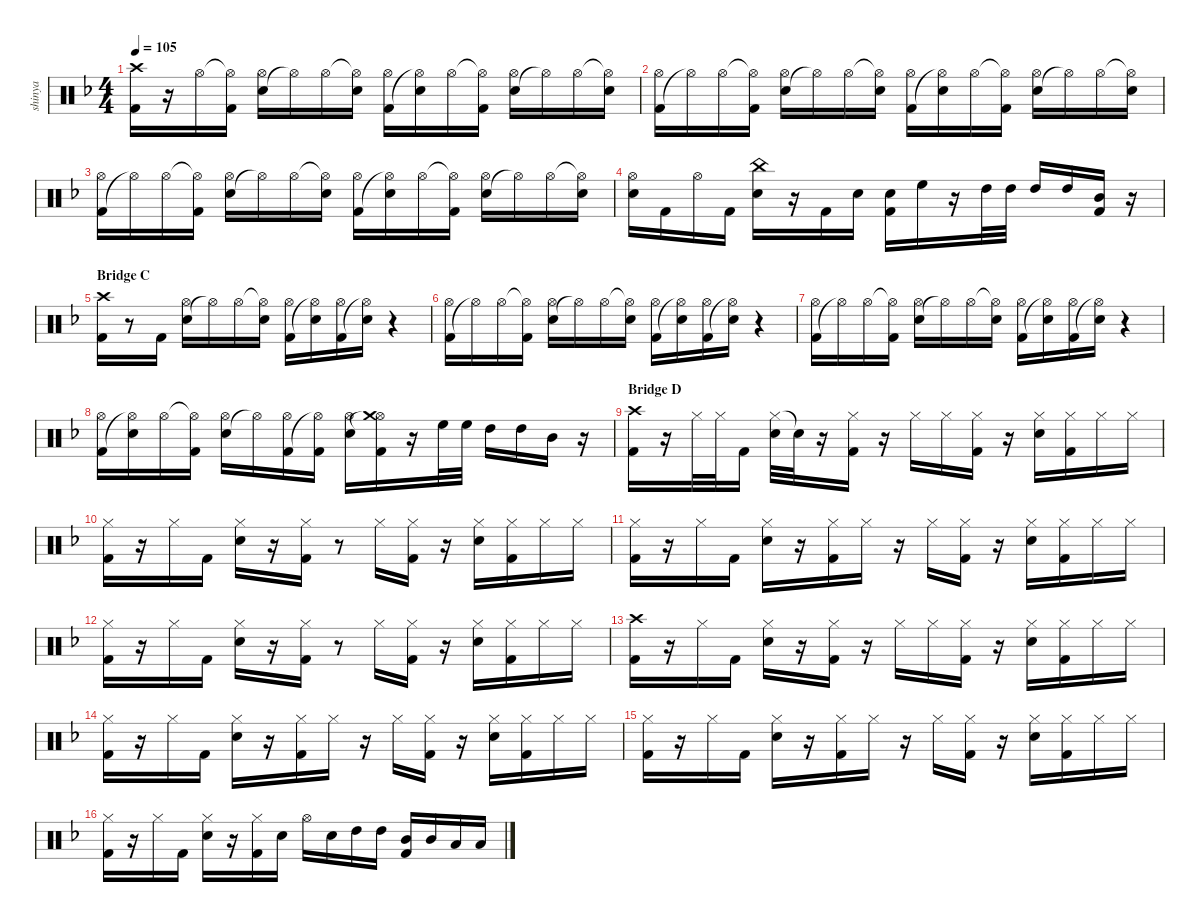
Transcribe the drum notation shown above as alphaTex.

\defaultSystemsLayout 4
\hideDynamics
\bracketExtendMode nobrackets
\otherSystemsTrackNameOrientation horizontal
\track ("Shinya" "shinya") {defaultSystemsLayout 4 instrument percussion}
\staff {score}
\articulation defaults
\ts (4 4)
\tempo 105
\clef neutral
\scale
1.05921
\ks dminor
("Kick (hit) 2"{acc forcenatural} "Crash high (hit)"{acc #}).16{dy fff} r.16 "Hi-Hat (open)"{acc #}.16 ("Hi-Hat (open)"{t acc #} "Kick (hit) 2"{acc forcenatural}).16 ("Snare (hit) 2"{acc forcenatural} "Hi-Hat (open)"{acc #}).16 "Hi-Hat (open)"{t acc #}.16 "Hi-Hat (open)"{acc #}.16 ("Hi-Hat (open)"{t acc #} "Snare (hit) 2"{acc forcenatural}).16 ("Kick (hit) 2"{acc forcenatural} "Hi-Hat (open)"{acc #}).16 ("Hi-Hat (open)"{t acc #} "Snare (hit) 2"{acc forcenatural}).16 "Hi-Hat (open)"{acc #}.16 ("Hi-Hat (open)"{t acc #} "Kick (hit) 2"{acc forcenatural}).16 ("Snare (hit) 2"{acc forcenatural} "Hi-Hat (open)"{acc #}).16 "Hi-Hat (open)"{t acc #}.16 "Hi-Hat (open)"{acc #}.16 ("Hi-Hat (open)"{t acc #} "Snare (hit) 2"{acc forcenatural}).16 |
\scale
0.974368 ("Kick (hit) 2"{acc forcenatural} "Hi-Hat (open)"{acc #}).16 "Hi-Hat (open)"{t acc #}.16 "Hi-Hat (open)"{acc #}.16 ("Hi-Hat (open)"{t acc #} "Kick (hit) 2"{acc forcenatural}).16 ("Snare (hit) 2"{acc forcenatural} "Hi-Hat (open)"{acc #}).16 "Hi-Hat (open)"{t acc #}.16 "Hi-Hat (open)"{acc #}.16 ("Hi-Hat (open)"{t acc #} "Snare (hit) 2"{acc forcenatural}).16 ("Kick (hit) 2"{acc forcenatural} "Hi-Hat (open)"{acc #}).16 ("Hi-Hat (open)"{t acc #} "Snare (hit) 2"{acc forcenatural}).16 "Hi-Hat (open)"{acc #}.16 ("Hi-Hat (open)"{t acc #} "Kick (hit) 2"{acc forcenatural}).16 ("Snare (hit) 2"{acc forcenatural} "Hi-Hat (open)"{acc #}).16 "Hi-Hat (open)"{t acc #}.16 "Hi-Hat (open)"{acc #}.16 ("Hi-Hat (open)"{t acc #} "Snare (hit) 2"{acc forcenatural}).16 |
\scale
0.974368 ("Kick (hit) 2"{acc forcenatural} "Hi-Hat (open)"{acc #}).16 "Hi-Hat (open)"{t acc #}.16 "Hi-Hat (open)"{acc #}.16 ("Hi-Hat (open)"{t acc #} "Kick (hit) 2"{acc forcenatural}).16 ("Snare (hit) 2"{acc forcenatural} "Hi-Hat (open)"{acc #}).16 "Hi-Hat (open)"{t acc #}.16 "Hi-Hat (open)"{acc #}.16 ("Hi-Hat (open)"{t acc #} "Snare (hit) 2"{acc forcenatural}).16 ("Kick (hit) 2"{acc forcenatural} "Hi-Hat (open)"{acc #}).16 ("Hi-Hat (open)"{t acc #} "Snare (hit) 2"{acc forcenatural}).16 "Hi-Hat (open)"{acc #}.16 ("Hi-Hat (open)"{t acc #} "Kick (hit) 2"{acc forcenatural}).16 ("Snare (hit) 2"{acc forcenatural} "Hi-Hat (open)"{acc #}).16 "Hi-Hat (open)"{t acc #}.16 "Hi-Hat (open)"{acc #}.16 ("Hi-Hat (open)"{t acc #} "Snare (hit) 2"{acc forcenatural}).16 |
\scale
0.992053 ("Snare (hit) 2"{acc forcenatural} "Hi-Hat (open)"{acc #}).16 "Kick (hit) 2"{acc forcenatural}.16 "Hi-Hat (open)"{acc #}.16 "Kick (hit) 2"{acc forcenatural}.16 ("Snare (hit) 2"{acc forcenatural} "China (hit)"{acc forcenatural}).16 r.16 "Kick (hit) 2"{acc forcenatural}.16 "Snare (hit) 2"{acc forcenatural}.16 ("Kick (hit) 2"{acc forcenatural} "Snare (hit) 2"{acc forcenatural}).16 "High Floor Tom (hit)"{acc forcenatural}.16 r.16 "High Tom (hit)"{acc forcenatural}.32{dy ff} "High Tom (hit)"{acc forcenatural}.32 "High Tom (hit)"{acc forcenatural}.16{dy fff} "High Tom (hit)"{acc forcenatural}.16 ("Kick (hit) 2"{acc forcenatural} "Mid Tom (hit)"{acc forcenatural}).16 r.16 |
\section ("" "Bridge C")
\scale
1.05921 ("Kick (hit) 2"{acc forcenatural} "Crash high (hit)"{acc #}).16 r.8 "Kick (hit) 2"{acc forcenatural}.16 ("Snare (hit) 2"{acc forcenatural} "Hi-Hat (open)"{acc #}).16 "Hi-Hat (open)"{t acc #}.16 "Hi-Hat (open)"{acc #}.16{dy f} ("Hi-Hat (open)"{t acc #} "Snare (hit) 2"{acc forcenatural}).16 ("Kick (hit) 2"{acc forcenatural} "Hi-Hat (open)"{acc #}).16{dy fff} ("Hi-Hat (open)"{t acc #} "Snare (hit) 2"{acc forcenatural}).16 ("Kick (hit) 2"{acc forcenatural} "Hi-Hat (open)"{acc #}).16 ("Hi-Hat (open)"{t acc #} "Snare (hit) 2"{acc forcenatural}).16 r.4 |
\scale
0.974368 ("Kick (hit) 2"{acc forcenatural} "Hi-Hat (open)"{acc #}).16 "Hi-Hat (open)"{t acc #}.16 "Hi-Hat (open)"{acc #}.16{dy f} ("Hi-Hat (open)"{t acc #} "Kick (hit) 2"{acc forcenatural}).16 ("Snare (hit) 2"{acc forcenatural} "Hi-Hat (open)"{acc #}).16{dy fff} "Hi-Hat (open)"{t acc #}.16 "Hi-Hat (open)"{acc #}.16{dy f} ("Hi-Hat (open)"{t acc #} "Snare (hit) 2"{acc forcenatural}).16 ("Kick (hit) 2"{acc forcenatural} "Hi-Hat (open)"{acc #}).16{dy fff} ("Hi-Hat (open)"{t acc #} "Snare (hit) 2"{acc forcenatural}).16 ("Kick (hit) 2"{acc forcenatural} "Hi-Hat (open)"{acc #}).16 ("Hi-Hat (open)"{t acc #} "Snare (hit) 2"{acc forcenatural}).16 r.4 |
\scale
0.974368 ("Kick (hit) 2"{acc forcenatural} "Hi-Hat (open)"{acc #}).16 "Hi-Hat (open)"{t acc #}.16 "Hi-Hat (open)"{acc #}.16{dy f} ("Hi-Hat (open)"{t acc #} "Kick (hit) 2"{acc forcenatural}).16 ("Snare (hit) 2"{acc forcenatural} "Hi-Hat (open)"{acc #}).16{dy fff} "Hi-Hat (open)"{t acc #}.16 "Hi-Hat (open)"{acc #}.16{dy f} ("Hi-Hat (open)"{t acc #} "Snare (hit) 2"{acc forcenatural}).16 ("Kick (hit) 2"{acc forcenatural} "Hi-Hat (open)"{acc #}).16{dy fff} ("Hi-Hat (open)"{t acc #} "Snare (hit) 2"{acc forcenatural}).16 ("Kick (hit) 2"{acc forcenatural} "Hi-Hat (open)"{acc #}).16 ("Hi-Hat (open)"{t acc #} "Snare (hit) 2"{acc forcenatural}).16 r.4 |
\scale
0.992053 ("Kick (hit) 2"{acc forcenatural} "Hi-Hat (open)"{acc #}).16 ("Hi-Hat (open)"{t acc #} "Snare (hit) 2"{acc forcenatural}).16 "Hi-Hat (open)"{acc #}.16{dy f} ("Hi-Hat (open)"{t acc #} "Kick (hit) 2"{acc forcenatural}).16 ("Snare (hit) 2"{acc forcenatural} "Hi-Hat (open)"{acc #}).16{dy fff} "Hi-Hat (open)"{t acc #}.16 ("Kick (hit) 2"{acc forcenatural} "Hi-Hat (open)"{acc #}).16 ("Hi-Hat (open)"{t acc #} "Kick (hit) 2"{acc forcenatural}).16{dy f} ("Snare (hit) 2"{acc forcenatural} "Hi-Hat (open)"{acc #}).16{dy fff} ("Hi-Hat (open)"{t acc #} "Kick (hit) 2"{acc forcenatural} "Crash medium (hit)"{acc forcenatural}).16 r.16 "High Floor Tom (hit)"{acc forcenatural}.32 "High Floor Tom (hit)"{acc forcenatural}.32 "High Tom (hit)"{acc forcenatural}.16 "High Tom (hit)"{acc forcenatural}.16 "Mid Tom (hit)"{acc forcenatural}.16 r.16 |
\section ("" "Bridge D")
\scale
1.06363 ("Kick (hit) 2"{acc forcenatural} "Crash high (hit)"{acc #}).16 r.16 "Hi-Hat (closed)"{acc #}.32{dy f} "Hi-Hat (closed)"{acc #}.32 "Kick (hit) 2"{acc forcenatural}.16{dy fff} ("Hi-Hat (closed)"{acc #} "Snare (hit) 2"{acc forcenatural}).32{dy f} "Snare (hit) 2"{t acc forcenatural}.32{dy fff} r.16 ("Kick (hit) 2"{acc forcenatural} "Hi-Hat (closed)"{acc #}).16 r.16 "Hi-Hat (closed)"{acc #}.16 "Hi-Hat (closed)"{acc #}.16 ("Kick (hit) 2"{acc forcenatural} "Hi-Hat (closed)"{acc #}).16 r.16 ("Snare (hit) 2"{acc forcenatural} "Hi-Hat (closed)"{acc #}).16 ("Kick (hit) 2"{acc forcenatural} "Hi-Hat (closed)"{acc #}).16 "Hi-Hat (closed)"{acc #}.16 "Hi-Hat (closed)"{acc #}.16 |
\scale
0.97879 ("Kick (hit) 2"{acc forcenatural} "Hi-Hat (closed)"{acc #}).16 r.16 "Hi-Hat (closed)"{acc #}.16 "Kick (hit) 2"{acc forcenatural}.16 ("Snare (hit) 2"{acc forcenatural} "Hi-Hat (closed)"{acc #}).16 r.16 ("Kick (hit) 2"{acc forcenatural} "Hi-Hat (closed)"{acc #}).16 r.8 "Hi-Hat (closed)"{acc #}.16 ("Kick (hit) 2"{acc forcenatural} "Hi-Hat (closed)"{acc #}).16 r.16 ("Snare (hit) 2"{acc forcenatural} "Hi-Hat (closed)"{acc #}).16 ("Kick (hit) 2"{acc forcenatural} "Hi-Hat (closed)"{acc #}).16 "Hi-Hat (closed)"{acc #}.16 "Hi-Hat (closed)"{acc #}.16 |
\scale
0.97879 ("Kick (hit) 2"{acc forcenatural} "Hi-Hat (closed)"{acc #}).16 r.16 "Hi-Hat (closed)"{acc #}.16 "Kick (hit) 2"{acc forcenatural}.16 ("Snare (hit) 2"{acc forcenatural} "Hi-Hat (closed)"{acc #}).16 r.16 ("Kick (hit) 2"{acc forcenatural} "Hi-Hat (closed)"{acc #}).16 "Hi-Hat (closed)"{acc #}.16 r.16 "Hi-Hat (closed)"{acc #}.16 ("Kick (hit) 2"{acc forcenatural} "Hi-Hat (closed)"{acc #}).16 r.16 ("Snare (hit) 2"{acc forcenatural} "Hi-Hat (closed)"{acc #}).16 ("Kick (hit) 2"{acc forcenatural} "Hi-Hat (closed)"{acc #}).16 "Hi-Hat (closed)"{acc #}.16 "Hi-Hat (closed)"{acc #}.16 |
\scale
0.97879 ("Kick (hit) 2"{acc forcenatural} "Hi-Hat (closed)"{acc #}).16 r.16 "Hi-Hat (closed)"{acc #}.16 "Kick (hit) 2"{acc forcenatural}.16 ("Snare (hit) 2"{acc forcenatural} "Hi-Hat (closed)"{acc #}).16 r.16 ("Kick (hit) 2"{acc forcenatural} "Hi-Hat (closed)"{acc #}).16 r.8 "Hi-Hat (closed)"{acc #}.16 ("Kick (hit) 2"{acc forcenatural} "Hi-Hat (closed)"{acc #}).16 r.16 ("Snare (hit) 2"{acc forcenatural} "Hi-Hat (closed)"{acc #}).16 ("Kick (hit) 2"{acc forcenatural} "Hi-Hat (closed)"{acc #}).16 "Hi-Hat (closed)"{acc #}.16 "Hi-Hat (closed)"{acc #}.16 |
\scale
1.05921 ("Kick (hit) 2"{acc forcenatural} "Crash high (hit)"{acc #}).16 r.16 "Hi-Hat (closed)"{acc #}.16 "Kick (hit) 2"{acc forcenatural}.16 ("Snare (hit) 2"{acc forcenatural} "Hi-Hat (closed)"{acc #}).16 r.16 ("Kick (hit) 2"{acc forcenatural} "Hi-Hat (closed)"{acc #}).16 r.16 "Hi-Hat (closed)"{acc #}.16 "Hi-Hat (closed)"{acc #}.16 ("Kick (hit) 2"{acc forcenatural} "Hi-Hat (closed)"{acc #}).16 r.16 ("Snare (hit) 2"{acc forcenatural} "Hi-Hat (closed)"{acc #}).16 ("Kick (hit) 2"{acc forcenatural} "Hi-Hat (closed)"{acc #}).16 "Hi-Hat (closed)"{acc #}.16 "Hi-Hat (closed)"{acc #}.16 |
\scale
0.974368 ("Kick (hit) 2"{acc forcenatural} "Hi-Hat (closed)"{acc #}).16 r.16 "Hi-Hat (closed)"{acc #}.16 "Kick (hit) 2"{acc forcenatural}.16 ("Snare (hit) 2"{acc forcenatural} "Hi-Hat (closed)"{acc #}).16 r.16 ("Kick (hit) 2"{acc forcenatural} "Hi-Hat (closed)"{acc #}).16 "Hi-Hat (closed)"{acc #}.16 r.16 "Hi-Hat (closed)"{acc #}.16 ("Kick (hit) 2"{acc forcenatural} "Hi-Hat (closed)"{acc #}).16 r.16 ("Snare (hit) 2"{acc forcenatural} "Hi-Hat (closed)"{acc #}).16 ("Kick (hit) 2"{acc forcenatural} "Hi-Hat (closed)"{acc #}).16 "Hi-Hat (closed)"{acc #}.16 "Hi-Hat (closed)"{acc #}.16 |
\scale
0.974368 ("Kick (hit) 2"{acc forcenatural} "Hi-Hat (closed)"{acc #}).16 r.16 "Hi-Hat (closed)"{acc #}.16 "Kick (hit) 2"{acc forcenatural}.16 ("Snare (hit) 2"{acc forcenatural} "Hi-Hat (closed)"{acc #}).16 r.16 ("Kick (hit) 2"{acc forcenatural} "Hi-Hat (closed)"{acc #}).16 "Hi-Hat (closed)"{acc #}.16 r.16 "Hi-Hat (closed)"{acc #}.16 ("Kick (hit) 2"{acc forcenatural} "Hi-Hat (closed)"{acc #}).16 r.16 ("Snare (hit) 2"{acc forcenatural} "Hi-Hat (closed)"{acc #}).16 ("Kick (hit) 2"{acc forcenatural} "Hi-Hat (closed)"{acc #}).16 "Hi-Hat (closed)"{acc #}.16 "Hi-Hat (closed)"{acc #}.16 |
\scale
0.992053 ("Kick (hit) 2"{acc forcenatural} "Hi-Hat (closed)"{acc #}).16 r.16 "Hi-Hat (closed)"{acc #}.16 "Kick (hit) 2"{acc forcenatural}.16 ("Snare (hit) 2"{acc forcenatural} "Hi-Hat (closed)"{acc #}).16 r.16 ("Kick (hit) 2"{acc forcenatural} "Hi-Hat (closed)"{acc #}).16 "Snare (hit) 2"{acc forcenatural}.16 "Hi-Hat (open)"{acc #}.16 "Snare (hit) 2"{acc forcenatural}.16 "High Tom (hit)"{acc forcenatural}.16 "High Tom (hit)"{acc forcenatural}.16 ("Kick (hit) 2"{acc forcenatural} "Mid Tom (hit)"{acc forcenatural}).16 "Mid Tom (hit)"{acc forcenatural}.16 "Low Tom (hit)"{acc forcenatural}.16 "Low Tom (hit)"{acc forcenatural}.16
